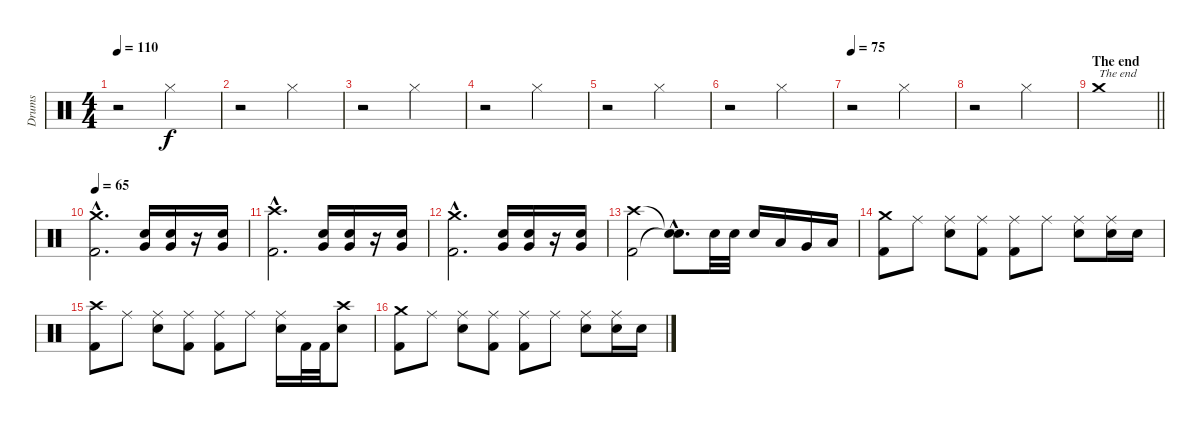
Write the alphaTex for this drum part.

\track ("Drums" "Drums") {instrument percussion}
\staff {score}
\articulation defaults
\ts (4 4)
\tempo 110
\clef neutral
\ks c
r.2{dy f} "Hi-Hat (closed)".2 |
r.2 "Hi-Hat (closed)".2 |
r.2 "Hi-Hat (closed)".2 |
r.2 "Hi-Hat (closed)".2 |
r.2 "Hi-Hat (closed)".2 |
r.2 "Hi-Hat (closed)".2 |
\tempo 75
r.2 "Hi-Hat (closed)".2 |
r.2 "Hi-Hat (closed)".2 |
\section ("" "The end")
\barLineRight lightlight "Crash medium (hit)".1{txt "The end"}
|
\tempo 65
("Kick (hit) 2"{hac} "Crash medium (hit)"{hac}).2{d volume 13} ("Snare (hit) 2" "Very Low Tom (hit)").16 ("Snare (hit) 2" "Very Low Tom (hit)").16 r.16 ("Snare (hit) 2" "Very Low Tom (hit)").16 |
("Kick (hit) 2"{hac} "Crash high (hit)"{hac}).2{d} ("Snare (hit) 2" "Very Low Tom (hit)").16 ("Snare (hit) 2" "Very Low Tom (hit)").16 r.16 ("Snare (hit) 2" "Very Low Tom (hit)").16 |
("Kick (hit) 2"{hac} "Crash medium (hit)"{hac}).2{d} ("Snare (hit) 2" "Very Low Tom (hit)").16 ("Snare (hit) 2" "Very Low Tom (hit)").16 r.16 ("Snare (hit) 2" "Very Low Tom (hit)").16 |
("Kick (hit) 2" "Crash high (hit)").2 ("Snare (hit)"{hac t} "Snare (hit)"{hac t}).8{d} "Snare (hit) 2".32 "Snare (hit) 2".32 "Snare (hit) 2".16 "Low Tom (hit)".16 "Very Low Tom (hit)".16 "Low Floor Tom (hit)".16 |
("Kick (hit) 2" "Crash medium (hit)").8 "Ride (middle)".8 ("Snare (hit) 2" "Ride (middle)").8 ("Kick (hit) 2" "Ride (middle)").8 ("Kick (hit) 2" "Ride (middle)").8 "Ride (middle)".8 ("Snare (hit) 2" "Ride (middle)").8 ("Snare (hit) 2" "Ride (middle)").16 "Snare (hit) 2".16 |
("Kick (hit) 2" "Crash high (hit)").8 "Ride (middle)".8 ("Snare (hit) 2" "Ride (middle)").8 ("Kick (hit) 2" "Ride (middle)").8 ("Kick (hit) 2" "Ride (middle)").8 "Ride (middle)".8 ("Snare (hit) 2" "Ride (middle)").16 "Kick (hit) 2".32 "Kick (hit) 2".32 ("Snare (hit) 2" "Crash high (hit)").8 |
("Kick (hit) 2" "Crash medium (hit)").8 "Ride (middle)".8 ("Snare (hit) 2" "Ride (middle)").8 ("Kick (hit) 2" "Ride (middle)").8 ("Kick (hit) 2" "Ride (middle)").8 "Ride (middle)".8 ("Snare (hit) 2" "Ride (middle)").8 ("Snare (hit) 2" "Ride (middle)").16 "Snare (hit) 2".16
